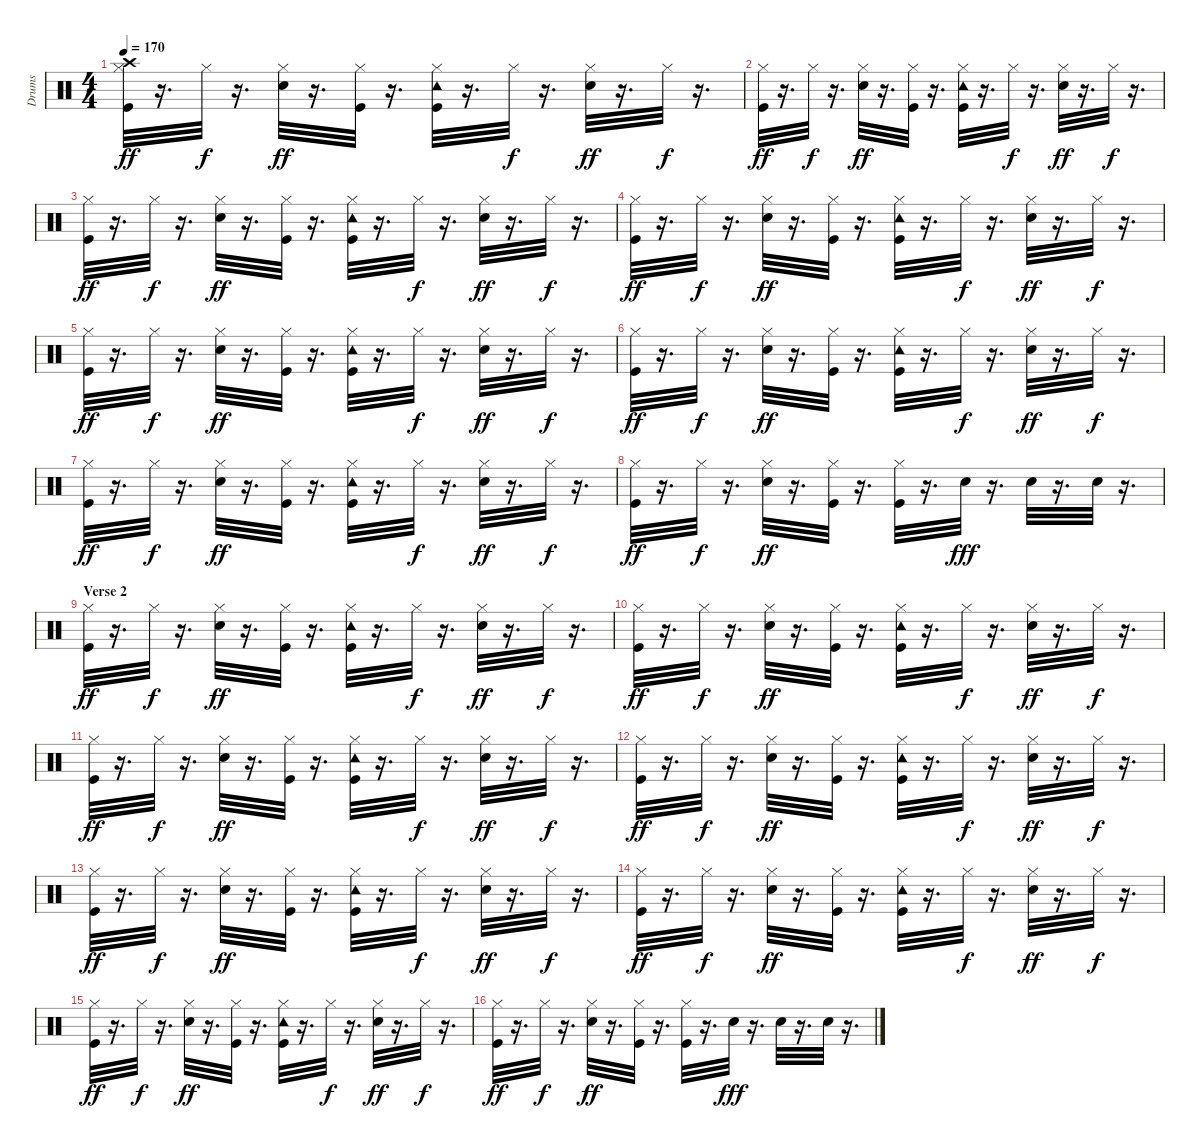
\track ("Drums" "Drums") {instrument percussion}
\staff {score}
\articulation defaults
\ts (4 4)
\tempo 170
\clef neutral
\ks c
("Kick (hit)" "Crash high (hit)" "Hi-Hat (closed)").32{dy ff} r.16{d} "Hi-Hat (closed)".32{dy f} r.16{d} ("Snare (hit) 2" "Hi-Hat (closed)").32{dy ff} r.16{d} ("Hi-Hat (closed)" "Kick (hit)").32 r.16{d} ("Kick (hit)" "Tambourine (hit)" "Hi-Hat (closed)").32 r.16{d} "Hi-Hat (closed)".32{dy f} r.16{d} ("Snare (hit) 2" "Hi-Hat (closed)").32{dy ff} r.16{d} "Hi-Hat (closed)".32{dy f} r.16{d} |
("Kick (hit)" "Hi-Hat (closed)").32{dy ff} r.16{d} "Hi-Hat (closed)".32{dy f} r.16{d} ("Snare (hit) 2" "Hi-Hat (closed)").32{dy ff} r.16{d} ("Hi-Hat (closed)" "Kick (hit)").32 r.16{d} ("Kick (hit)" "Tambourine (hit)" "Hi-Hat (closed)").32 r.16{d} "Hi-Hat (closed)".32{dy f} r.16{d} ("Snare (hit) 2" "Hi-Hat (closed)").32{dy ff} r.16{d} "Hi-Hat (closed)".32{dy f} r.16{d} |
("Kick (hit)" "Hi-Hat (closed)").32{dy ff} r.16{d} "Hi-Hat (closed)".32{dy f} r.16{d} ("Snare (hit) 2" "Hi-Hat (closed)").32{dy ff} r.16{d} ("Hi-Hat (closed)" "Kick (hit)").32 r.16{d} ("Kick (hit)" "Tambourine (hit)" "Hi-Hat (closed)").32 r.16{d} "Hi-Hat (closed)".32{dy f} r.16{d} ("Snare (hit) 2" "Hi-Hat (closed)").32{dy ff} r.16{d} "Hi-Hat (closed)".32{dy f} r.16{d} |
("Kick (hit)" "Hi-Hat (closed)").32{dy ff} r.16{d} "Hi-Hat (closed)".32{dy f} r.16{d} ("Snare (hit) 2" "Hi-Hat (closed)").32{dy ff} r.16{d} ("Hi-Hat (closed)" "Kick (hit)").32 r.16{d} ("Kick (hit)" "Tambourine (hit)" "Hi-Hat (closed)").32 r.16{d} "Hi-Hat (closed)".32{dy f} r.16{d} ("Snare (hit) 2" "Hi-Hat (closed)").32{dy ff} r.16{d} "Hi-Hat (closed)".32{dy f} r.16{d} |
("Kick (hit)" "Hi-Hat (closed)").32{dy ff} r.16{d} "Hi-Hat (closed)".32{dy f} r.16{d} ("Snare (hit) 2" "Hi-Hat (closed)").32{dy ff} r.16{d} ("Hi-Hat (closed)" "Kick (hit)").32 r.16{d} ("Kick (hit)" "Tambourine (hit)" "Hi-Hat (closed)").32 r.16{d} "Hi-Hat (closed)".32{dy f} r.16{d} ("Snare (hit) 2" "Hi-Hat (closed)").32{dy ff} r.16{d} "Hi-Hat (closed)".32{dy f} r.16{d} |
("Kick (hit)" "Hi-Hat (closed)").32{dy ff} r.16{d} "Hi-Hat (closed)".32{dy f} r.16{d} ("Snare (hit) 2" "Hi-Hat (closed)").32{dy ff} r.16{d} ("Hi-Hat (closed)" "Kick (hit)").32 r.16{d} ("Kick (hit)" "Tambourine (hit)" "Hi-Hat (closed)").32 r.16{d} "Hi-Hat (closed)".32{dy f} r.16{d} ("Snare (hit) 2" "Hi-Hat (closed)").32{dy ff} r.16{d} "Hi-Hat (closed)".32{dy f} r.16{d} |
("Kick (hit)" "Hi-Hat (closed)").32{dy ff} r.16{d} "Hi-Hat (closed)".32{dy f} r.16{d} ("Snare (hit) 2" "Hi-Hat (closed)").32{dy ff} r.16{d} ("Hi-Hat (closed)" "Kick (hit)").32 r.16{d} ("Kick (hit)" "Tambourine (hit)" "Hi-Hat (closed)").32 r.16{d} "Hi-Hat (closed)".32{dy f} r.16{d} ("Snare (hit) 2" "Hi-Hat (closed)").32{dy ff} r.16{d} "Hi-Hat (closed)".32{dy f} r.16{d} |
("Kick (hit)" "Hi-Hat (closed)").32{dy ff} r.16{d} "Hi-Hat (closed)".32{dy f} r.16{d} ("Snare (hit) 2" "Hi-Hat (closed)").32{dy ff} r.16{d} ("Hi-Hat (closed)" "Kick (hit)").32 r.16{d} ("Kick (hit)" "Hi-Hat (closed)").32 r.16{d} "Snare (hit) 2".32{dy fff} r.16{d} "Snare (hit) 2".32 r.16{d} "Snare (hit) 2".32 r.16{d} |
\section ("" "Verse 2")
("Kick (hit)" "Hi-Hat (closed)").32{dy ff} r.16{d} "Hi-Hat (closed)".32{dy f} r.16{d} ("Snare (hit) 2" "Hi-Hat (closed)").32{dy ff} r.16{d} ("Hi-Hat (closed)" "Kick (hit)").32 r.16{d} ("Kick (hit)" "Tambourine (hit)" "Hi-Hat (closed)").32 r.16{d} "Hi-Hat (closed)".32{dy f} r.16{d} ("Snare (hit) 2" "Hi-Hat (closed)").32{dy ff} r.16{d} "Hi-Hat (closed)".32{dy f} r.16{d} |
("Kick (hit)" "Hi-Hat (closed)").32{dy ff} r.16{d} "Hi-Hat (closed)".32{dy f} r.16{d} ("Snare (hit) 2" "Hi-Hat (closed)").32{dy ff} r.16{d} ("Hi-Hat (closed)" "Kick (hit)").32 r.16{d} ("Kick (hit)" "Tambourine (hit)" "Hi-Hat (closed)").32 r.16{d} "Hi-Hat (closed)".32{dy f} r.16{d} ("Snare (hit) 2" "Hi-Hat (closed)").32{dy ff} r.16{d} "Hi-Hat (closed)".32{dy f} r.16{d} |
("Kick (hit)" "Hi-Hat (closed)").32{dy ff} r.16{d} "Hi-Hat (closed)".32{dy f} r.16{d} ("Snare (hit) 2" "Hi-Hat (closed)").32{dy ff} r.16{d} ("Hi-Hat (closed)" "Kick (hit)").32 r.16{d} ("Kick (hit)" "Tambourine (hit)" "Hi-Hat (closed)").32 r.16{d} "Hi-Hat (closed)".32{dy f} r.16{d} ("Snare (hit) 2" "Hi-Hat (closed)").32{dy ff} r.16{d} "Hi-Hat (closed)".32{dy f} r.16{d} |
("Kick (hit)" "Hi-Hat (closed)").32{dy ff} r.16{d} "Hi-Hat (closed)".32{dy f} r.16{d} ("Snare (hit) 2" "Hi-Hat (closed)").32{dy ff} r.16{d} ("Hi-Hat (closed)" "Kick (hit)").32 r.16{d} ("Kick (hit)" "Tambourine (hit)" "Hi-Hat (closed)").32 r.16{d} "Hi-Hat (closed)".32{dy f} r.16{d} ("Snare (hit) 2" "Hi-Hat (closed)").32{dy ff} r.16{d} "Hi-Hat (closed)".32{dy f} r.16{d} |
("Kick (hit)" "Hi-Hat (closed)").32{dy ff} r.16{d} "Hi-Hat (closed)".32{dy f} r.16{d} ("Snare (hit) 2" "Hi-Hat (closed)").32{dy ff} r.16{d} ("Hi-Hat (closed)" "Kick (hit)").32 r.16{d} ("Kick (hit)" "Tambourine (hit)" "Hi-Hat (closed)").32 r.16{d} "Hi-Hat (closed)".32{dy f} r.16{d} ("Snare (hit) 2" "Hi-Hat (closed)").32{dy ff} r.16{d} "Hi-Hat (closed)".32{dy f} r.16{d} |
("Kick (hit)" "Hi-Hat (closed)").32{dy ff} r.16{d} "Hi-Hat (closed)".32{dy f} r.16{d} ("Snare (hit) 2" "Hi-Hat (closed)").32{dy ff} r.16{d} ("Hi-Hat (closed)" "Kick (hit)").32 r.16{d} ("Kick (hit)" "Tambourine (hit)" "Hi-Hat (closed)").32 r.16{d} "Hi-Hat (closed)".32{dy f} r.16{d} ("Snare (hit) 2" "Hi-Hat (closed)").32{dy ff} r.16{d} "Hi-Hat (closed)".32{dy f} r.16{d} |
("Kick (hit)" "Hi-Hat (closed)").32{dy ff} r.16{d} "Hi-Hat (closed)".32{dy f} r.16{d} ("Snare (hit) 2" "Hi-Hat (closed)").32{dy ff} r.16{d} ("Hi-Hat (closed)" "Kick (hit)").32 r.16{d} ("Kick (hit)" "Tambourine (hit)" "Hi-Hat (closed)").32 r.16{d} "Hi-Hat (closed)".32{dy f} r.16{d} ("Snare (hit) 2" "Hi-Hat (closed)").32{dy ff} r.16{d} "Hi-Hat (closed)".32{dy f} r.16{d} |
("Kick (hit)" "Hi-Hat (closed)").32{dy ff} r.16{d} "Hi-Hat (closed)".32{dy f} r.16{d} ("Snare (hit) 2" "Hi-Hat (closed)").32{dy ff} r.16{d} ("Hi-Hat (closed)" "Kick (hit)").32 r.16{d} ("Kick (hit)" "Hi-Hat (closed)").32 r.16{d} "Snare (hit) 2".32{dy fff} r.16{d} "Snare (hit) 2".32 r.16{d} "Snare (hit) 2".32 r.16{d}
